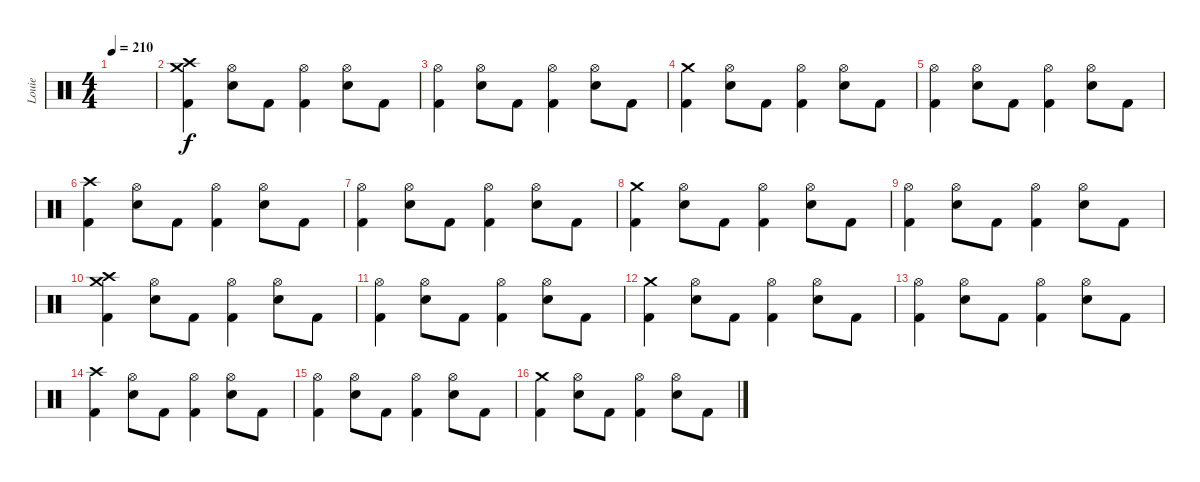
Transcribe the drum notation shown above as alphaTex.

\track ("Louie" "Louie") {instrument percussion}
\staff {score}
\articulation defaults
\ts (4 4)
\tempo 210
\clef neutral
\ks c
|
("Crash medium (hit)" "Crash high (hit)" "Kick (hit) 2").4 ("Hi-Hat (open)" "Snare (hit) 2").8 "Kick (hit) 2".8 ("Hi-Hat (open)" "Kick (hit) 2").4 ("Hi-Hat (open)" "Snare (hit) 2").8 "Kick (hit) 2".8 |
("Hi-Hat (open)" "Kick (hit) 2").4 ("Hi-Hat (open)" "Snare (hit) 2").8 "Kick (hit) 2".8 ("Hi-Hat (open)" "Kick (hit) 2").4 ("Hi-Hat (open)" "Snare (hit) 2").8 "Kick (hit) 2".8 |
("Crash medium (hit)" "Kick (hit) 2").4 ("Hi-Hat (open)" "Snare (hit) 2").8 "Kick (hit) 2".8 ("Hi-Hat (open)" "Kick (hit) 2").4 ("Hi-Hat (open)" "Snare (hit) 2").8 "Kick (hit) 2".8 |
("Hi-Hat (open)" "Kick (hit) 2").4 ("Hi-Hat (open)" "Snare (hit) 2").8 "Kick (hit) 2".8 ("Hi-Hat (open)" "Kick (hit) 2").4 ("Hi-Hat (open)" "Snare (hit) 2").8 "Kick (hit) 2".8 |
("Crash high (hit)" "Kick (hit) 2").4 ("Hi-Hat (open)" "Snare (hit) 2").8 "Kick (hit) 2".8 ("Hi-Hat (open)" "Kick (hit) 2").4 ("Hi-Hat (open)" "Snare (hit) 2").8 "Kick (hit) 2".8 |
("Hi-Hat (open)" "Kick (hit) 2").4 ("Hi-Hat (open)" "Snare (hit) 2").8 "Kick (hit) 2".8 ("Hi-Hat (open)" "Kick (hit) 2").4 ("Hi-Hat (open)" "Snare (hit) 2").8 "Kick (hit) 2".8 |
("Crash medium (hit)" "Kick (hit) 2").4 ("Hi-Hat (open)" "Snare (hit) 2").8 "Kick (hit) 2".8 ("Hi-Hat (open)" "Kick (hit) 2").4 ("Hi-Hat (open)" "Snare (hit) 2").8 "Kick (hit) 2".8 |
("Hi-Hat (open)" "Kick (hit) 2").4 ("Hi-Hat (open)" "Snare (hit) 2").8 "Kick (hit) 2".8 ("Hi-Hat (open)" "Kick (hit) 2").4 ("Hi-Hat (open)" "Snare (hit) 2").8 "Kick (hit) 2".8 |
("Crash medium (hit)" "Crash high (hit)" "Kick (hit) 2").4 ("Hi-Hat (open)" "Snare (hit) 2").8 "Kick (hit) 2".8 ("Hi-Hat (open)" "Kick (hit) 2").4 ("Hi-Hat (open)" "Snare (hit) 2").8 "Kick (hit) 2".8 |
("Hi-Hat (open)" "Kick (hit) 2").4 ("Hi-Hat (open)" "Snare (hit) 2").8 "Kick (hit) 2".8 ("Hi-Hat (open)" "Kick (hit) 2").4 ("Hi-Hat (open)" "Snare (hit) 2").8 "Kick (hit) 2".8 |
("Crash medium (hit)" "Kick (hit) 2").4 ("Hi-Hat (open)" "Snare (hit) 2").8 "Kick (hit) 2".8 ("Hi-Hat (open)" "Kick (hit) 2").4 ("Hi-Hat (open)" "Snare (hit) 2").8 "Kick (hit) 2".8 |
("Hi-Hat (open)" "Kick (hit) 2").4 ("Hi-Hat (open)" "Snare (hit) 2").8 "Kick (hit) 2".8 ("Hi-Hat (open)" "Kick (hit) 2").4 ("Hi-Hat (open)" "Snare (hit) 2").8 "Kick (hit) 2".8 |
("Crash high (hit)" "Kick (hit) 2").4 ("Hi-Hat (open)" "Snare (hit) 2").8 "Kick (hit) 2".8 ("Hi-Hat (open)" "Kick (hit) 2").4 ("Hi-Hat (open)" "Snare (hit) 2").8 "Kick (hit) 2".8 |
("Hi-Hat (open)" "Kick (hit) 2").4 ("Hi-Hat (open)" "Snare (hit) 2").8 "Kick (hit) 2".8 ("Hi-Hat (open)" "Kick (hit) 2").4 ("Hi-Hat (open)" "Snare (hit) 2").8 "Kick (hit) 2".8 |
("Crash medium (hit)" "Kick (hit) 2").4 ("Hi-Hat (open)" "Snare (hit) 2").8 "Kick (hit) 2".8 ("Hi-Hat (open)" "Kick (hit) 2").4 ("Hi-Hat (open)" "Snare (hit) 2").8 "Kick (hit) 2".8
